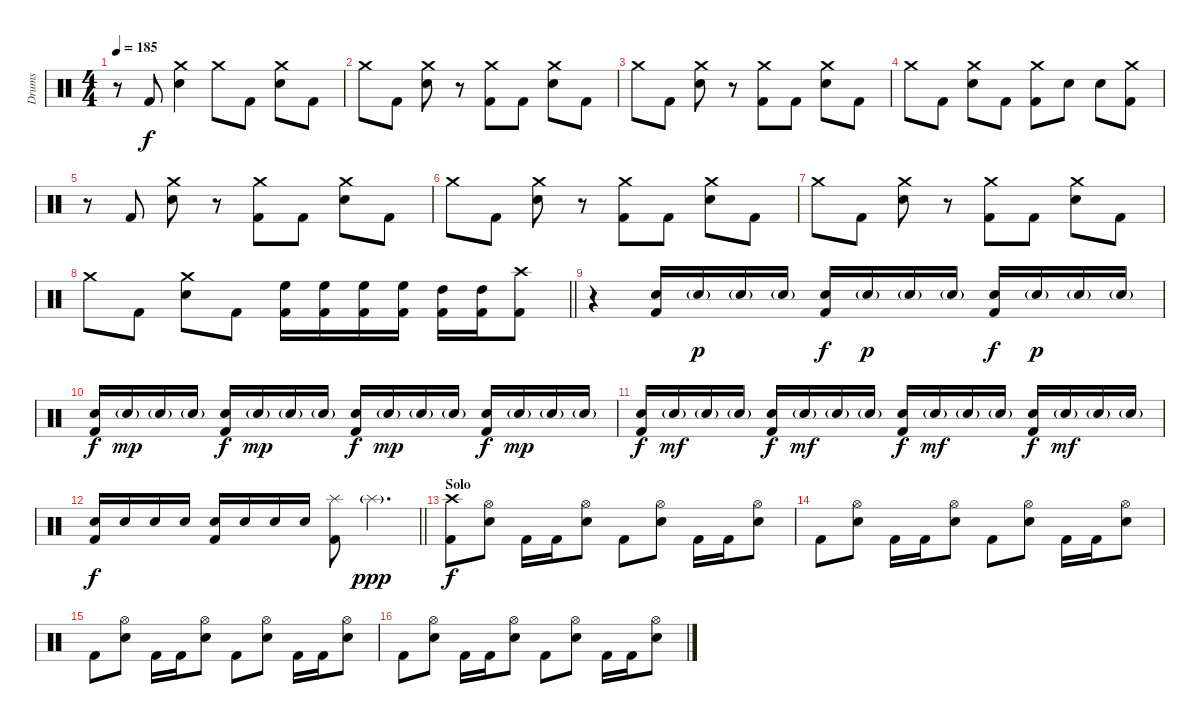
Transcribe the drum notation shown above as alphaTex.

\track ("Drums" "Drums") {instrument percussion}
\staff {score}
\articulation defaults
\ts (4 4)
\tempo 185
\clef neutral
\ks c
r.8{dy f} "Kick (hit) 2".8 ("Crash medium (hit)" "Electric Snare (hit)").4 "Crash medium (hit)".8 "Kick (hit) 2".8 ("Crash medium (hit)" "Electric Snare (hit)").8 "Kick (hit) 2".8 |
"Crash medium (hit)".8 "Kick (hit) 2".8 ("Crash medium (hit)" "Electric Snare (hit)").8 r.8 ("Crash medium (hit)" "Kick (hit) 2").8 "Kick (hit) 2".8 ("Crash medium (hit)" "Electric Snare (hit)").8 "Kick (hit) 2".8 |
"Crash medium (hit)".8 "Kick (hit) 2".8 ("Crash medium (hit)" "Electric Snare (hit)").8 r.8 ("Crash medium (hit)" "Kick (hit) 2").8 "Kick (hit) 2".8 ("Crash medium (hit)" "Electric Snare (hit)").8 "Kick (hit) 2".8 |
"Crash medium (hit)".8 "Kick (hit) 2".8 ("Crash medium (hit)" "Electric Snare (hit)").8 "Kick (hit) 2".8 ("Crash medium (hit)" "Kick (hit) 2").8 "Electric Snare (hit)".8 "Electric Snare (hit)".8 ("Crash medium (hit)" "Kick (hit) 2").8 |
r.8 "Kick (hit) 2".8 ("Crash medium (hit)" "Electric Snare (hit)").8 r.8 ("Crash medium (hit)" "Kick (hit) 2").8 "Kick (hit) 2".8 ("Crash medium (hit)" "Electric Snare (hit)").8 "Kick (hit) 2".8 |
"Crash medium (hit)".8 "Kick (hit) 2".8 ("Crash medium (hit)" "Electric Snare (hit)").8 r.8 ("Crash medium (hit)" "Kick (hit) 2").8 "Kick (hit) 2".8 ("Crash medium (hit)" "Electric Snare (hit)").8 "Kick (hit) 2".8 |
"Crash medium (hit)".8 "Kick (hit) 2".8 ("Crash medium (hit)" "Electric Snare (hit)").8 r.8 ("Crash medium (hit)" "Kick (hit) 2").8 "Kick (hit) 2".8 ("Crash medium (hit)" "Electric Snare (hit)").8 "Kick (hit) 2".8 |
\barLineRight lightlight "Crash medium (hit)".8 "Kick (hit) 2".8
("Crash medium (hit)" "Electric Snare (hit)").8 "Kick (hit) 2".8 ("High Floor Tom (hit)" "Kick (hit) 2").16 ("High Floor Tom (hit)" "Kick (hit) 2").16 ("High Floor Tom (hit)" "Kick (hit) 2").16 ("High Floor Tom (hit)" "Kick (hit) 2").16 ("High Tom (hit)" "Kick (hit) 2").16 ("High Tom (hit)" "Kick (hit) 2").16 ("Crash high (hit)" "Kick (hit) 2").8 |
r.4 ("Electric Snare (hit)" "Kick (hit) 2").16 "Electric Snare (hit)"{g}.16{dy p} "Electric Snare (hit)"{g}.16 "Electric Snare (hit)"{g}.16 ("Electric Snare (hit)" "Kick (hit) 2").16{dy f} "Electric Snare (hit)"{g}.16{dy p} "Electric Snare (hit)"{g}.16 "Electric Snare (hit)"{g}.16 ("Electric Snare (hit)" "Kick (hit) 2").16{dy f} "Electric Snare (hit)"{g}.16{dy p} "Electric Snare (hit)"{g}.16 "Electric Snare (hit)"{g}.16 |
("Electric Snare (hit)" "Kick (hit) 2").16{dy f} "Electric Snare (hit)"{g}.16{dy mp} "Electric Snare (hit)"{g}.16 "Electric Snare (hit)"{g}.16 ("Electric Snare (hit)" "Kick (hit) 2").16{dy f} "Electric Snare (hit)"{g}.16{dy mp} "Electric Snare (hit)"{g}.16 "Electric Snare (hit)"{g}.16 ("Electric Snare (hit)" "Kick (hit) 2").16{dy f} "Electric Snare (hit)"{g}.16{dy mp} "Electric Snare (hit)"{g}.16 "Electric Snare (hit)"{g}.16 ("Electric Snare (hit)" "Kick (hit) 2").16{dy f} "Electric Snare (hit)"{g}.16{dy mp} "Electric Snare (hit)"{g}.16 "Electric Snare (hit)"{g}.16 |
("Electric Snare (hit)" "Kick (hit) 2").16{dy f} "Electric Snare (hit)"{g}.16{dy mf} "Electric Snare (hit)"{g}.16 "Electric Snare (hit)"{g}.16 ("Electric Snare (hit)" "Kick (hit) 2").16{dy f} "Electric Snare (hit)"{g}.16{dy mf} "Electric Snare (hit)"{g}.16 "Electric Snare (hit)"{g}.16 ("Electric Snare (hit)" "Kick (hit) 2").16{dy f} "Electric Snare (hit)"{g}.16{dy mf} "Electric Snare (hit)"{g}.16 "Electric Snare (hit)"{g}.16 ("Electric Snare (hit)" "Kick (hit) 2").16{dy f} "Electric Snare (hit)"{g}.16{dy mf} "Electric Snare (hit)"{g}.16 "Electric Snare (hit)"{g}.16 |
\barLineRight lightlight
("Electric Snare (hit)" "Kick (hit) 2").16{dy f} "Electric Snare (hit)".16 "Electric Snare (hit)".16 "Electric Snare (hit)".16 ("Electric Snare (hit)" "Kick (hit) 2").16 "Electric Snare (hit)".16 "Electric Snare (hit)".16 "Electric Snare (hit)".16 ("Splash (hit)" "Kick (hit) 2").8 "Splash (hit)"{g}.4{d dy ppp} |
\section ("" "Solo")
("Crash high (hit)" "Kick (hit) 2").8{dy f} ("Hi-Hat (open)" "Electric Snare (hit)").8 "Kick (hit) 2".16 "Kick (hit) 2".16 ("Hi-Hat (open)" "Electric Snare (hit)").8 "Kick (hit) 2".8 ("Hi-Hat (open)" "Electric Snare (hit)").8 "Kick (hit) 2".16 "Kick (hit) 2".16 ("Hi-Hat (open)" "Electric Snare (hit)").8 |
"Kick (hit) 2".8 ("Hi-Hat (open)" "Electric Snare (hit)").8 "Kick (hit) 2".16 "Kick (hit) 2".16 ("Hi-Hat (open)" "Electric Snare (hit)").8 "Kick (hit) 2".8 ("Hi-Hat (open)" "Electric Snare (hit)").8 "Kick (hit) 2".16 "Kick (hit) 2".16 ("Hi-Hat (open)" "Electric Snare (hit)").8 |
"Kick (hit) 2".8 ("Hi-Hat (open)" "Electric Snare (hit)").8 "Kick (hit) 2".16 "Kick (hit) 2".16 ("Hi-Hat (open)" "Electric Snare (hit)").8 "Kick (hit) 2".8 ("Hi-Hat (open)" "Electric Snare (hit)").8 "Kick (hit) 2".16 "Kick (hit) 2".16 ("Hi-Hat (open)" "Electric Snare (hit)").8 |
"Kick (hit) 2".8 ("Hi-Hat (open)" "Electric Snare (hit)").8 "Kick (hit) 2".16 "Kick (hit) 2".16 ("Hi-Hat (open)" "Electric Snare (hit)").8 "Kick (hit) 2".8 ("Hi-Hat (open)" "Electric Snare (hit)").8 "Kick (hit) 2".16 "Kick (hit) 2".16 ("Hi-Hat (open)" "Electric Snare (hit)").8
